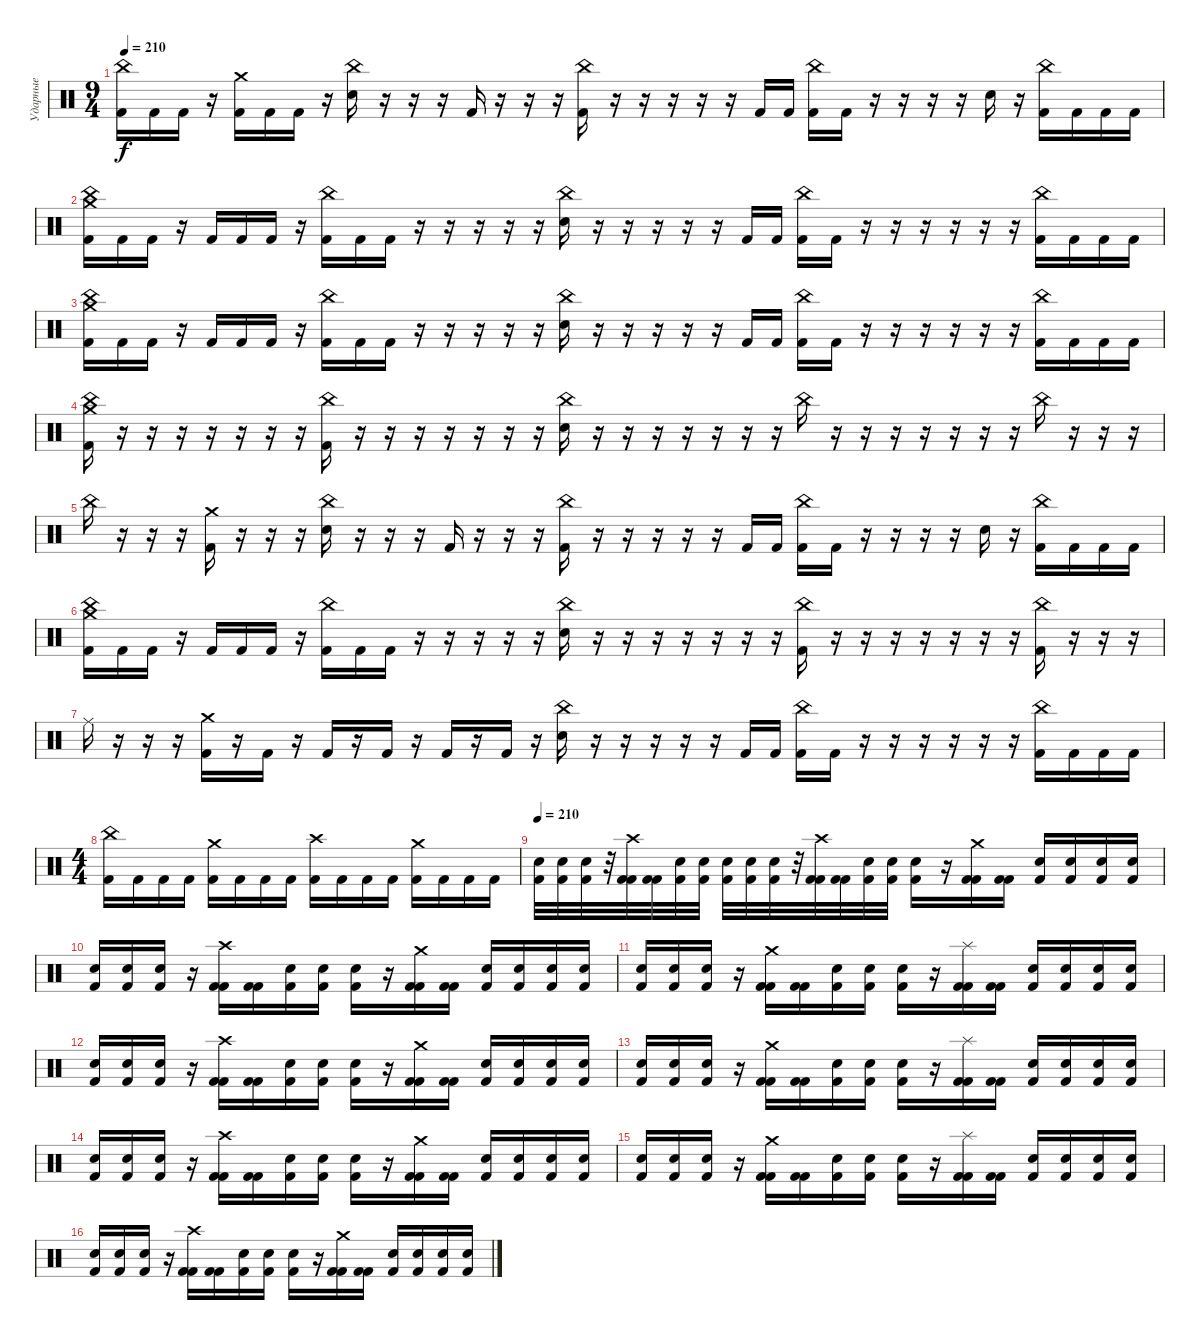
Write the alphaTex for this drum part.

\track ("Ударные" "Ударные") {instrument percussion}
\staff {score}
\articulation defaults
\ts (9 4)
\tempo 210
\clef neutral
\ks c
("China (hit)" "Kick (hit) 2").16{dy f} "Kick (hit) 2".16 "Kick (hit) 2".16 r.16 ("Crash medium (hit)" "Kick (hit) 2").16 "Kick (hit) 2".16 "Kick (hit) 2".16 r.16 ("China (hit)" "Snare (hit) 2").16 r.16 r.16 r.16 "Kick (hit) 2".16 r.16 r.16 r.16 ("China (hit)" "Kick (hit) 2").16 r.16 r.16 r.16 r.16 r.16 "Kick (hit) 2".16 "Kick (hit) 2".16 ("China (hit)" "Kick (hit) 2").16 "Kick (hit) 2".16 r.16 r.16 r.16 r.16 "Snare (hit) 2".16 r.16 ("China (hit)" "Kick (hit) 2").16 "Kick (hit) 2".16 "Kick (hit) 2".16 "Kick (hit) 2".16 |
("China (hit)" "Crash medium (hit)" "Kick (hit) 2").16 "Kick (hit) 2".16 "Kick (hit) 2".16 r.16 "Kick (hit) 2".16 "Kick (hit) 2".16 "Kick (hit) 2".16 r.16 ("China (hit)" "Kick (hit) 2").16 "Kick (hit) 2".16 "Kick (hit) 2".16 r.16 r.16 r.16 r.16 r.16 ("China (hit)" "Snare (hit) 2").16 r.16 r.16 r.16 r.16 r.16 "Kick (hit) 2".16 "Kick (hit) 2".16 ("China (hit)" "Kick (hit) 2").16 "Kick (hit) 2".16 r.16 r.16 r.16 r.16 r.16 r.16 ("China (hit)" "Kick (hit) 2").16 "Kick (hit) 2".16 "Kick (hit) 2".16 "Kick (hit) 2".16 |
("China (hit)" "Crash medium (hit)" "Kick (hit) 2").16 "Kick (hit) 2".16 "Kick (hit) 2".16 r.16 "Kick (hit) 2".16 "Kick (hit) 2".16 "Kick (hit) 2".16 r.16 ("China (hit)" "Kick (hit) 2").16 "Kick (hit) 2".16 "Kick (hit) 2".16 r.16 r.16 r.16 r.16 r.16 ("China (hit)" "Snare (hit) 2").16 r.16 r.16 r.16 r.16 r.16 "Kick (hit) 2".16 "Kick (hit) 2".16 ("China (hit)" "Kick (hit) 2").16 "Kick (hit) 2".16 r.16 r.16 r.16 r.16 r.16 r.16 ("China (hit)" "Kick (hit) 2").16 "Kick (hit) 2".16 "Kick (hit) 2".16 "Kick (hit) 2".16 |
("China (hit)" "Crash medium (hit)" "Kick (hit) 2").16 r.16 r.16 r.16 r.16 r.16 r.16 r.16 ("China (hit)" "Kick (hit) 2").16 r.16 r.16 r.16 r.16 r.16 r.16 r.16 ("China (hit)" "Snare (hit) 2").16 r.16 r.16 r.16 r.16 r.16 r.16 r.16 "China (hit)".16 r.16 r.16 r.16 r.16 r.16 r.16 r.16 "China (hit)".16 r.16 r.16 r.16 |
"China (hit)".16 r.16 r.16 r.16 ("Crash medium (hit)" "Kick (hit) 2").16 r.16 r.16 r.16 ("China (hit)" "Snare (hit) 2").16 r.16 r.16 r.16 "Kick (hit) 2".16 r.16 r.16 r.16 ("China (hit)" "Kick (hit) 2").16 r.16 r.16 r.16 r.16 r.16 "Kick (hit) 2".16 "Kick (hit) 2".16 ("China (hit)" "Kick (hit) 2").16 "Kick (hit) 2".16 r.16 r.16 r.16 r.16 "Snare (hit) 2".16 r.16 ("China (hit)" "Kick (hit) 2").16 "Kick (hit) 2".16 "Kick (hit) 2".16 "Kick (hit) 2".16 |
("China (hit)" "Crash medium (hit)" "Kick (hit) 2").16 "Kick (hit) 2".16 "Kick (hit) 2".16 r.16 "Kick (hit) 2".16 "Kick (hit) 2".16 "Kick (hit) 2".16 r.16 ("China (hit)" "Kick (hit) 2").16 "Kick (hit) 2".16 "Kick (hit) 2".16 r.16 r.16 r.16 r.16 r.16 ("China (hit)" "Snare (hit) 2").16 r.16 r.16 r.16 r.16 r.16 r.16 r.16 ("China (hit)" "Kick (hit) 2").16 r.16 r.16 r.16 r.16 r.16 r.16 r.16 ("China (hit)" "Kick (hit) 2").16 r.16 r.16 r.16 |
"Ride (middle)".16 r.16 r.16 r.16 ("Crash medium (hit)" "Kick (hit) 2").16 r.16 "Kick (hit) 2".16 r.16 "Kick (hit) 2".16 r.16 "Kick (hit) 2".16 r.16 "Kick (hit) 2".16 r.16 "Kick (hit) 2".16 r.16 ("China (hit)" "Snare (hit) 2").16 r.16 r.16 r.16 r.16 r.16 "Kick (hit) 2".16 "Kick (hit) 2".16 ("China (hit)" "Kick (hit) 2").16 "Kick (hit) 2".16 r.16 r.16 r.16 r.16 r.16 r.16 ("China (hit)" "Kick (hit) 2").16 "Kick (hit) 2".16 "Kick (hit) 2".16 "Kick (hit) 2".16 |
\ts (4 4)
("China (hit)" "Kick (hit) 2").16 "Kick (hit) 2".16 "Kick (hit) 2".16 "Kick (hit) 2".16 ("Crash medium (hit)" "Kick (hit) 2").16 "Kick (hit) 2".16 "Kick (hit) 2".16 "Kick (hit) 2".16 ("Crash high (hit)" "Kick (hit) 2").16 "Kick (hit) 2".16 "Kick (hit) 2".16 "Kick (hit) 2".16 ("Crash medium (hit)" "Kick (hit) 2").16 "Kick (hit) 2".16 "Kick (hit) 2".16 "Kick (hit) 2".16 |
\tempo 210
("Snare (hit) 2" "Kick (hit) 2").32 ("Snare (hit) 2" "Kick (hit) 2").32 ("Snare (hit) 2" "Kick (hit) 2").32 r.32 ("Crash high (hit)" "Kick (hit) 2" "Kick (hit) 2").32 ("Kick (hit) 2" "Kick (hit) 2").32 ("Snare (hit) 2" "Kick (hit) 2").32 ("Snare (hit) 2" "Kick (hit) 2").32 ("Snare (hit) 2" "Kick (hit) 2").32 ("Snare (hit) 2" "Kick (hit) 2").32 ("Snare (hit) 2" "Kick (hit) 2").32 r.32 ("Crash high (hit)" "Kick (hit) 2" "Kick (hit) 2").32 ("Kick (hit) 2" "Kick (hit) 2").32 ("Snare (hit) 2" "Kick (hit) 2").32 ("Snare (hit) 2" "Kick (hit) 2").32 ("Snare (hit) 2" "Kick (hit) 2").16 r.16 ("Crash medium (hit)" "Kick (hit) 2" "Kick (hit) 2").16 ("Kick (hit) 2" "Kick (hit) 2").16 ("Snare (hit) 2" "Kick (hit) 2").16 ("Snare (hit) 2" "Kick (hit) 2").16 ("Snare (hit) 2" "Kick (hit) 2").16 ("Snare (hit) 2" "Kick (hit) 2").16 |
("Snare (hit) 2" "Kick (hit) 2").16 ("Snare (hit) 2" "Kick (hit) 2").16 ("Snare (hit) 2" "Kick (hit) 2").16 r.16 ("Crash high (hit)" "Kick (hit) 2" "Kick (hit) 2").16 ("Kick (hit) 2" "Kick (hit) 2").16 ("Snare (hit) 2" "Kick (hit) 2").16 ("Snare (hit) 2" "Kick (hit) 2").16 ("Snare (hit) 2" "Kick (hit) 2").16 r.16 ("Crash medium (hit)" "Kick (hit) 2" "Kick (hit) 2").16 ("Kick (hit) 2" "Kick (hit) 2").16 ("Snare (hit) 2" "Kick (hit) 2").16 ("Snare (hit) 2" "Kick (hit) 2").16 ("Snare (hit) 2" "Kick (hit) 2").16 ("Snare (hit) 2" "Kick (hit) 2").16 |
("Snare (hit) 2" "Kick (hit) 2").16 ("Snare (hit) 2" "Kick (hit) 2").16 ("Snare (hit) 2" "Kick (hit) 2").16 r.16 ("Crash medium (hit)" "Kick (hit) 2" "Kick (hit) 2").16 ("Kick (hit) 2" "Kick (hit) 2").16 ("Snare (hit) 2" "Kick (hit) 2").16 ("Snare (hit) 2" "Kick (hit) 2").16 ("Snare (hit) 2" "Kick (hit) 2").16 r.16 ("Splash (hit)" "Kick (hit) 2" "Kick (hit) 2").16 ("Kick (hit) 2" "Kick (hit) 2").16 ("Snare (hit) 2" "Kick (hit) 2").16 ("Snare (hit) 2" "Kick (hit) 2").16 ("Snare (hit) 2" "Kick (hit) 2").16 ("Snare (hit) 2" "Kick (hit) 2").16 |
("Snare (hit) 2" "Kick (hit) 2").16 ("Snare (hit) 2" "Kick (hit) 2").16 ("Snare (hit) 2" "Kick (hit) 2").16 r.16 ("Crash high (hit)" "Kick (hit) 2" "Kick (hit) 2").16 ("Kick (hit) 2" "Kick (hit) 2").16 ("Snare (hit) 2" "Kick (hit) 2").16 ("Snare (hit) 2" "Kick (hit) 2").16 ("Snare (hit) 2" "Kick (hit) 2").16 r.16 ("Crash medium (hit)" "Kick (hit) 2" "Kick (hit) 2").16 ("Kick (hit) 2" "Kick (hit) 2").16 ("Snare (hit) 2" "Kick (hit) 2").16 ("Snare (hit) 2" "Kick (hit) 2").16 ("Snare (hit) 2" "Kick (hit) 2").16 ("Snare (hit) 2" "Kick (hit) 2").16 |
("Snare (hit) 2" "Kick (hit) 2").16 ("Snare (hit) 2" "Kick (hit) 2").16 ("Snare (hit) 2" "Kick (hit) 2").16 r.16 ("Crash medium (hit)" "Kick (hit) 2" "Kick (hit) 2").16 ("Kick (hit) 2" "Kick (hit) 2").16 ("Snare (hit) 2" "Kick (hit) 2").16 ("Snare (hit) 2" "Kick (hit) 2").16 ("Snare (hit) 2" "Kick (hit) 2").16 r.16 ("Splash (hit)" "Kick (hit) 2" "Kick (hit) 2").16 ("Kick (hit) 2" "Kick (hit) 2").16 ("Snare (hit) 2" "Kick (hit) 2").16 ("Snare (hit) 2" "Kick (hit) 2").16 ("Snare (hit) 2" "Kick (hit) 2").16 ("Snare (hit) 2" "Kick (hit) 2").16 |
("Snare (hit) 2" "Kick (hit) 2").16 ("Snare (hit) 2" "Kick (hit) 2").16 ("Snare (hit) 2" "Kick (hit) 2").16 r.16 ("Crash high (hit)" "Kick (hit) 2" "Kick (hit) 2").16 ("Kick (hit) 2" "Kick (hit) 2").16 ("Snare (hit) 2" "Kick (hit) 2").16 ("Snare (hit) 2" "Kick (hit) 2").16 ("Snare (hit) 2" "Kick (hit) 2").16 r.16 ("Crash medium (hit)" "Kick (hit) 2" "Kick (hit) 2").16 ("Kick (hit) 2" "Kick (hit) 2").16 ("Snare (hit) 2" "Kick (hit) 2").16 ("Snare (hit) 2" "Kick (hit) 2").16 ("Snare (hit) 2" "Kick (hit) 2").16 ("Snare (hit) 2" "Kick (hit) 2").16 |
("Snare (hit) 2" "Kick (hit) 2").16 ("Snare (hit) 2" "Kick (hit) 2").16 ("Snare (hit) 2" "Kick (hit) 2").16 r.16 ("Crash medium (hit)" "Kick (hit) 2" "Kick (hit) 2").16 ("Kick (hit) 2" "Kick (hit) 2").16 ("Snare (hit) 2" "Kick (hit) 2").16 ("Snare (hit) 2" "Kick (hit) 2").16 ("Snare (hit) 2" "Kick (hit) 2").16 r.16 ("Splash (hit)" "Kick (hit) 2" "Kick (hit) 2").16 ("Kick (hit) 2" "Kick (hit) 2").16 ("Snare (hit) 2" "Kick (hit) 2").16 ("Snare (hit) 2" "Kick (hit) 2").16 ("Snare (hit) 2" "Kick (hit) 2").16 ("Snare (hit) 2" "Kick (hit) 2").16 |
("Snare (hit) 2" "Kick (hit) 2").16 ("Snare (hit) 2" "Kick (hit) 2").16 ("Snare (hit) 2" "Kick (hit) 2").16 r.16 ("Crash high (hit)" "Kick (hit) 2" "Kick (hit) 2").16 ("Kick (hit) 2" "Kick (hit) 2").16 ("Snare (hit) 2" "Kick (hit) 2").16 ("Snare (hit) 2" "Kick (hit) 2").16 ("Snare (hit) 2" "Kick (hit) 2").16 r.16 ("Crash medium (hit)" "Kick (hit) 2" "Kick (hit) 2").16 ("Kick (hit) 2" "Kick (hit) 2").16 ("Snare (hit) 2" "Kick (hit) 2").16 ("Snare (hit) 2" "Kick (hit) 2").16 ("Snare (hit) 2" "Kick (hit) 2").16 ("Snare (hit) 2" "Kick (hit) 2").16
